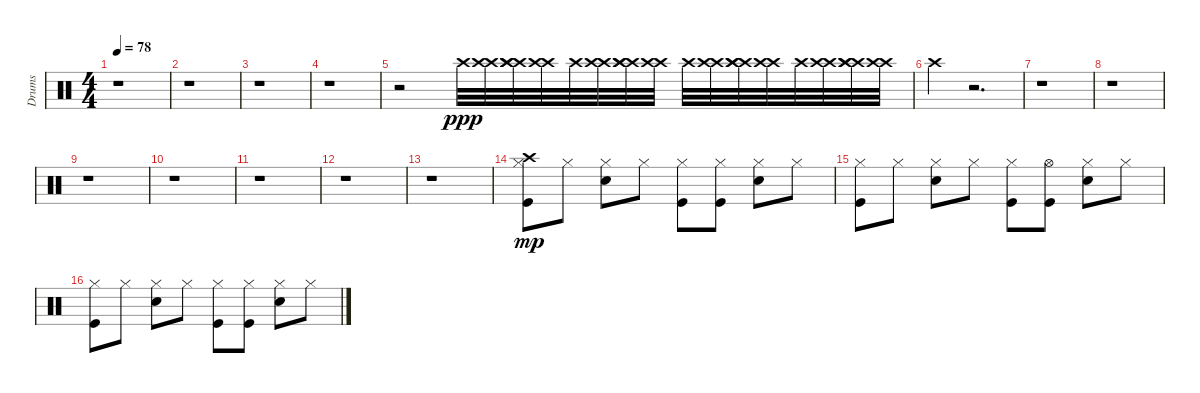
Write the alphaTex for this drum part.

\track ("Drums" "Drums") {instrument percussion}
\staff {score}
\articulation defaults
\ts (4 4)
\tempo 78
\clef neutral
\ks c
r.1{dy ppp} |
r.1 |
r.1 |
r.1 |
r.2 "Crash high (hit)".32{balance 8} ("Crash high (hit)" "Crash high (hit)").32{volume 3} ("Crash high (hit)" "Crash high (hit)" "Crash high (hit)").32{volume 3} ("Crash high (hit)" "Crash high (hit)").32{volume 3} "Crash high (hit)".32{volume 3} ("Crash high (hit)" "Crash high (hit)").32{volume 3} ("Crash high (hit)" "Crash high (hit)" "Crash high (hit)").32{volume 3} ("Crash high (hit)" "Crash high (hit)").32{volume 3} "Crash high (hit)".32{volume 3} ("Crash high (hit)" "Crash high (hit)").32{volume 3} ("Crash high (hit)" "Crash high (hit)" "Crash high (hit)").32{volume 3} ("Crash high (hit)" "Crash high (hit)").32{volume 3} "Crash high (hit)".32{volume 3} ("Crash high (hit)" "Crash high (hit)").32{volume 3} ("Crash high (hit)" "Crash high (hit)" "Crash high (hit)").32{volume 3} ("Crash high (hit)" "Crash high (hit)").32{volume 3} |
"Crash high (hit)".4{volume 0} r.2{d} |
r.1 |
r.1 |
r.1 |
r.1 |
r.1 |
r.1 |
r.1 |
("Kick (hit)" "Hi-Hat (closed)" "Crash high (hit)").8{dy mp volume 12 balance 8} "Hi-Hat (closed)".8{volume 16 balance 8} ("Snare (hit) 2" "Hi-Hat (closed)").8 "Hi-Hat (closed)".8 ("Kick (hit)" "Hi-Hat (closed)").8{balance 8} ("Kick (hit)" "Hi-Hat (closed)").8{balance 8} ("Snare (hit) 2" "Hi-Hat (closed)").8 "Hi-Hat (closed)".8 |
("Kick (hit)" "Hi-Hat (closed)").8{balance 8} "Hi-Hat (closed)".8 ("Snare (hit) 2" "Hi-Hat (closed)").8 "Hi-Hat (closed)".8 ("Kick (hit)" "Hi-Hat (closed)").8{balance 8} ("Kick (hit)" "Hi-Hat (open)").8{balance 7} ("Snare (hit) 2" "Hi-Hat (closed)").8{balance 8} "Hi-Hat (closed)".8 |
("Kick (hit)" "Hi-Hat (closed)").8{balance 8} "Hi-Hat (closed)".8 ("Snare (hit) 2" "Hi-Hat (closed)").8 "Hi-Hat (closed)".8 ("Kick (hit)" "Hi-Hat (closed)").8{balance 8} ("Kick (hit)" "Hi-Hat (closed)").8{balance 8} ("Snare (hit) 2" "Hi-Hat (closed)").8 "Hi-Hat (closed)".8
